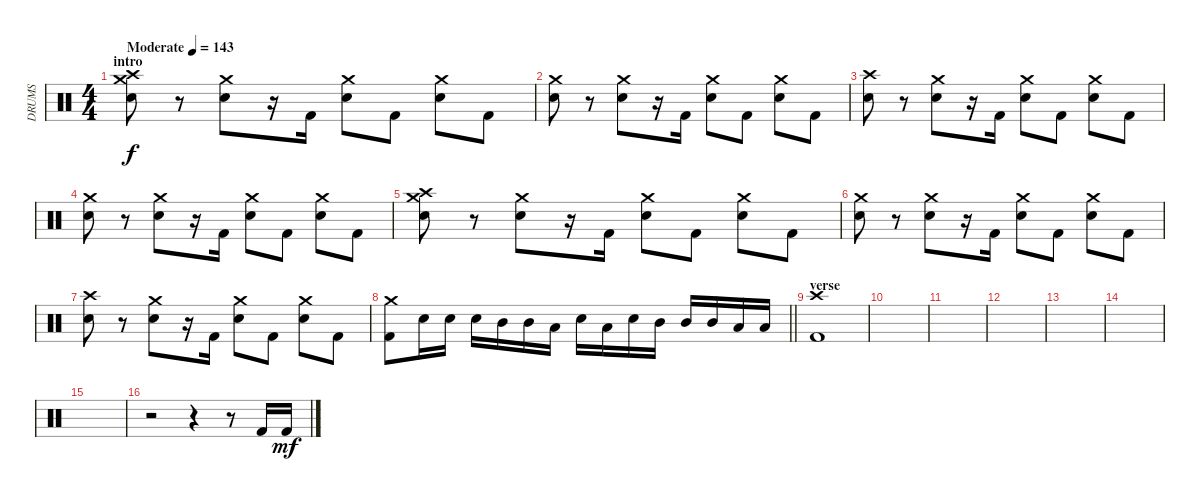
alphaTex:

\track ("DRUMS" "DRUMS") {instrument percussion}
\staff {score}
\articulation defaults
\ts (4 4)
\section ("" "intro")
\tempo (143 "Moderate")
\clef neutral
\ks c
("Crash medium (hit)" "Crash high (hit)" "Electric Snare (hit)").8{dy f} r.8 ("Crash medium (hit)" "Electric Snare (hit)").8 r.16 "Kick (hit) 2".16 ("Crash medium (hit)" "Electric Snare (hit)").8 "Kick (hit) 2".8 ("Crash medium (hit)" "Electric Snare (hit)").8 "Kick (hit) 2".8 |
("Crash medium (hit)" "Electric Snare (hit)").8 r.8 ("Crash medium (hit)" "Electric Snare (hit)").8 r.16 "Kick (hit) 2".16 ("Crash medium (hit)" "Electric Snare (hit)").8 "Kick (hit) 2".8 ("Crash medium (hit)" "Electric Snare (hit)").8 "Kick (hit) 2".8 |
("Crash high (hit)" "Electric Snare (hit)").8 r.8 ("Crash medium (hit)" "Electric Snare (hit)").8 r.16 "Kick (hit) 2".16 ("Crash medium (hit)" "Electric Snare (hit)").8 "Kick (hit) 2".8 ("Crash medium (hit)" "Electric Snare (hit)").8 "Kick (hit) 2".8 |
("Crash medium (hit)" "Electric Snare (hit)").8 r.8 ("Crash medium (hit)" "Electric Snare (hit)").8 r.16 "Kick (hit) 2".16 ("Crash medium (hit)" "Electric Snare (hit)").8 "Kick (hit) 2".8 ("Crash medium (hit)" "Electric Snare (hit)").8 "Kick (hit) 2".8 |
("Crash medium (hit)" "Crash high (hit)" "Electric Snare (hit)").8 r.8 ("Crash medium (hit)" "Electric Snare (hit)").8 r.16 "Kick (hit) 2".16 ("Crash medium (hit)" "Electric Snare (hit)").8 "Kick (hit) 2".8 ("Crash medium (hit)" "Electric Snare (hit)").8 "Kick (hit) 2".8 |
("Crash medium (hit)" "Electric Snare (hit)").8 r.8 ("Crash medium (hit)" "Electric Snare (hit)").8 r.16 "Kick (hit) 2".16 ("Crash medium (hit)" "Electric Snare (hit)").8 "Kick (hit) 2".8 ("Crash medium (hit)" "Electric Snare (hit)").8 "Kick (hit) 2".8 |
("Crash high (hit)" "Electric Snare (hit)").8 r.8 ("Crash medium (hit)" "Electric Snare (hit)").8 r.16 "Kick (hit) 2".16 ("Crash medium (hit)" "Electric Snare (hit)").8 "Kick (hit) 2".8 ("Crash medium (hit)" "Electric Snare (hit)").8 "Kick (hit) 2".8 |
\barLineRight lightlight
("Crash medium (hit)" "Kick (hit) 2").8 "Electric Snare (hit)".16 "Electric Snare (hit)".16 "Electric Snare (hit)".16 "Mid Tom (hit)".16 "Mid Tom (hit)".16 "Low Tom (hit)".16 "Electric Snare (hit)".16 "Low Tom (hit)".16 "Electric Snare (hit)".16 "Mid Tom (hit)".16 "Mid Tom (hit)".16 "Mid Tom (hit)".16 "Low Tom (hit)".16 "Low Tom (hit)".16 |
\section ("" "verse")
("Crash high (hit)" "Kick (hit) 2").1 |
|
|
|
|
|
|
r.2 r.4 r.8 "Kick (hit) 2".16 "Kick (hit) 2".16{dy mf}
